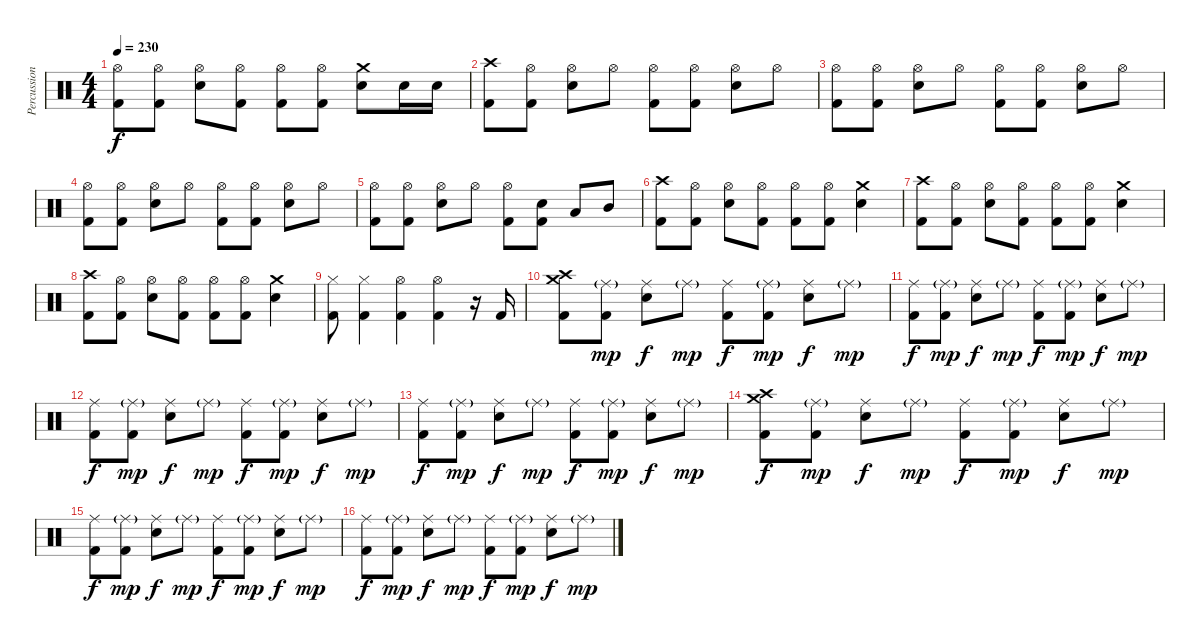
\track ("Percussion" "Percussion") {instrument percussion}
\staff {score}
\articulation defaults
\ts (4 4)
\tempo 230
\clef neutral
\ks c
("Hi-Hat (open)" "Kick (hit) 2").8{dy f} ("Hi-Hat (open)" "Kick (hit) 2").8 ("Hi-Hat (open)" "Snare (hit) 2").8 ("Hi-Hat (open)" "Kick (hit) 2").8 ("Hi-Hat (open)" "Kick (hit) 2").8 ("Hi-Hat (open)" "Kick (hit) 2").8 ("Crash medium (hit)" "Snare (hit) 2").8 "Snare (hit) 2".16 "Snare (hit) 2".16 |
("Crash high (hit)" "Kick (hit) 2").8 ("Hi-Hat (open)" "Kick (hit) 2").8 ("Hi-Hat (open)" "Snare (hit) 2").8 "Hi-Hat (open)".8 ("Hi-Hat (open)" "Kick (hit) 2").8 ("Hi-Hat (open)" "Kick (hit) 2").8 ("Hi-Hat (open)" "Snare (hit) 2").8 "Hi-Hat (open)".8 |
("Hi-Hat (open)" "Kick (hit) 2").8 ("Hi-Hat (open)" "Kick (hit) 2").8 ("Hi-Hat (open)" "Snare (hit) 2").8 "Hi-Hat (open)".8 ("Hi-Hat (open)" "Kick (hit) 2").8 ("Hi-Hat (open)" "Kick (hit) 2").8 ("Hi-Hat (open)" "Snare (hit) 2").8 "Hi-Hat (open)".8 |
("Hi-Hat (open)" "Kick (hit) 2").8 ("Hi-Hat (open)" "Kick (hit) 2").8 ("Hi-Hat (open)" "Snare (hit) 2").8 "Hi-Hat (open)".8 ("Hi-Hat (open)" "Kick (hit) 2").8 ("Hi-Hat (open)" "Kick (hit) 2").8 ("Hi-Hat (open)" "Snare (hit) 2").8 "Hi-Hat (open)".8 |
("Hi-Hat (open)" "Kick (hit) 2").8 ("Hi-Hat (open)" "Kick (hit) 2").8 ("Hi-Hat (open)" "Snare (hit) 2").8 "Hi-Hat (open)".8 ("Hi-Hat (open)" "Kick (hit) 2").8 ("Snare (hit) 2" "Kick (hit) 2").8 "Low Tom (hit)".8 "Mid Tom (hit)".8 |
("Crash high (hit)" "Kick (hit) 2").8 ("Hi-Hat (open)" "Kick (hit) 2").8 ("Hi-Hat (open)" "Snare (hit) 2").8 ("Hi-Hat (open)" "Kick (hit) 2").8 ("Hi-Hat (open)" "Kick (hit) 2").8 ("Hi-Hat (open)" "Kick (hit) 2").8 ("Crash medium (hit)" "Snare (hit) 2").4 |
("Crash high (hit)" "Kick (hit) 2").8 ("Hi-Hat (open)" "Kick (hit) 2").8 ("Hi-Hat (open)" "Snare (hit) 2").8 ("Hi-Hat (open)" "Kick (hit) 2").8 ("Hi-Hat (open)" "Kick (hit) 2").8 ("Hi-Hat (open)" "Kick (hit) 2").8 ("Crash medium (hit)" "Snare (hit) 2").4 |
("Crash high (hit)" "Kick (hit) 2").8 ("Hi-Hat (open)" "Kick (hit) 2").8 ("Hi-Hat (open)" "Snare (hit) 2").8 ("Hi-Hat (open)" "Kick (hit) 2").8 ("Hi-Hat (open)" "Kick (hit) 2").8 ("Hi-Hat (open)" "Kick (hit) 2").8 ("Crash medium (hit)" "Snare (hit) 2").4 |
("Hi-Hat (closed)" "Kick (hit) 2").8 ("Hi-Hat (closed)" "Kick (hit) 2").4 ("Hi-Hat (open)" "Kick (hit) 2").4 ("Hi-Hat (open)" "Kick (hit) 2").4 r.16 "Kick (hit) 2".16 |
("Crash medium (hit)" "Crash high (hit)" "Kick (hit) 2").8 ("Ride (middle)"{g} "Kick (hit) 2").8{dy mp} ("Ride (middle)" "Snare (hit) 2").8{dy f} "Ride (middle)"{g}.8{dy mp} ("Ride (middle)" "Kick (hit) 2").8{dy f} ("Ride (middle)"{g} "Kick (hit) 2").8{dy mp} ("Ride (middle)" "Snare (hit) 2").8{dy f} "Ride (middle)"{g}.8{dy mp} |
("Ride (middle)" "Kick (hit) 2").8{dy f} ("Ride (middle)"{g} "Kick (hit) 2").8{dy mp} ("Ride (middle)" "Snare (hit) 2").8{dy f} "Ride (middle)"{g}.8{dy mp} ("Ride (middle)" "Kick (hit) 2").8{dy f} ("Ride (middle)"{g} "Kick (hit) 2").8{dy mp} ("Ride (middle)" "Snare (hit) 2").8{dy f} "Ride (middle)"{g}.8{dy mp} |
("Ride (middle)" "Kick (hit) 2").8{dy f} ("Ride (middle)"{g} "Kick (hit) 2").8{dy mp} ("Ride (middle)" "Snare (hit) 2").8{dy f} "Ride (middle)"{g}.8{dy mp} ("Ride (middle)" "Kick (hit) 2").8{dy f} ("Ride (middle)"{g} "Kick (hit) 2").8{dy mp} ("Ride (middle)" "Snare (hit) 2").8{dy f} "Ride (middle)"{g}.8{dy mp} |
("Ride (middle)" "Kick (hit) 2").8{dy f} ("Ride (middle)"{g} "Kick (hit) 2").8{dy mp} ("Ride (middle)" "Snare (hit) 2").8{dy f} "Ride (middle)"{g}.8{dy mp} ("Ride (middle)" "Kick (hit) 2").8{dy f} ("Ride (middle)"{g} "Kick (hit) 2").8{dy mp} ("Ride (middle)" "Snare (hit) 2").8{dy f} "Ride (middle)"{g}.8{dy mp} |
("Crash medium (hit)" "Crash high (hit)" "Kick (hit) 2").8{dy f} ("Ride (middle)"{g} "Kick (hit) 2").8{dy mp} ("Ride (middle)" "Snare (hit) 2").8{dy f} "Ride (middle)"{g}.8{dy mp} ("Ride (middle)" "Kick (hit) 2").8{dy f} ("Ride (middle)"{g} "Kick (hit) 2").8{dy mp} ("Ride (middle)" "Snare (hit) 2").8{dy f} "Ride (middle)"{g}.8{dy mp} |
("Ride (middle)" "Kick (hit) 2").8{dy f} ("Ride (middle)"{g} "Kick (hit) 2").8{dy mp} ("Ride (middle)" "Snare (hit) 2").8{dy f} "Ride (middle)"{g}.8{dy mp} ("Ride (middle)" "Kick (hit) 2").8{dy f} ("Ride (middle)"{g} "Kick (hit) 2").8{dy mp} ("Ride (middle)" "Snare (hit) 2").8{dy f} "Ride (middle)"{g}.8{dy mp} |
("Ride (middle)" "Kick (hit) 2").8{dy f} ("Ride (middle)"{g} "Kick (hit) 2").8{dy mp} ("Ride (middle)" "Snare (hit) 2").8{dy f} "Ride (middle)"{g}.8{dy mp} ("Ride (middle)" "Kick (hit) 2").8{dy f} ("Ride (middle)"{g} "Kick (hit) 2").8{dy mp} ("Ride (middle)" "Snare (hit) 2").8{dy f} "Ride (middle)"{g}.8{dy mp}
